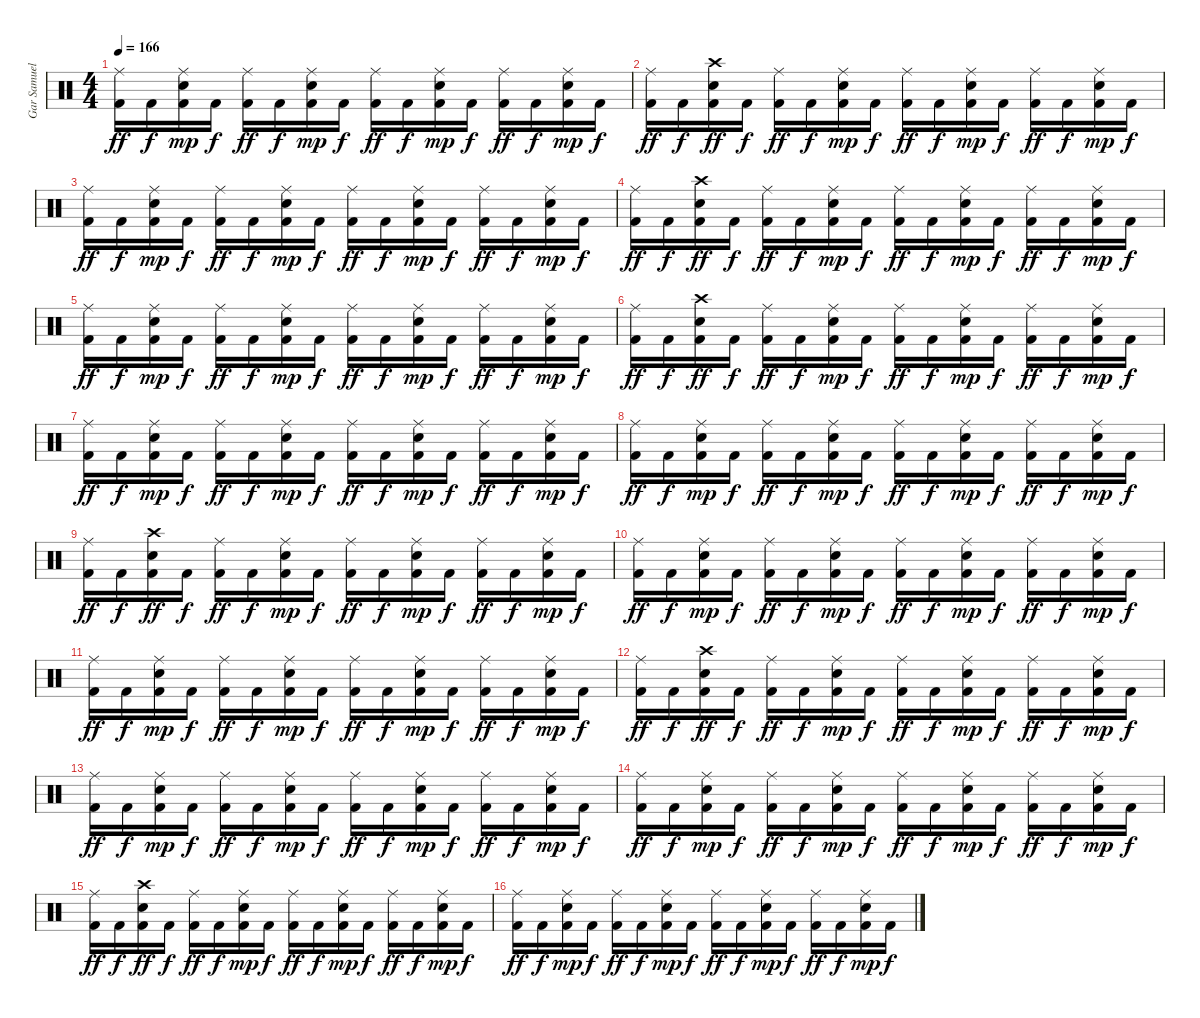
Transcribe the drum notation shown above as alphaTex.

\track ("Gar Samuelson" "Gar Samuel") {instrument percussion}
\staff {score}
\articulation defaults
\ts (4 4)
\tempo 166
\clef neutral
\ks c
("Ride (middle)" "Kick (hit) 2").16{dy ff} "Kick (hit) 2".16{dy f} ("Kick (hit) 2" "Snare (hit) 2" "Ride (middle)").16{dy mp} "Kick (hit) 2".16{dy f} ("Ride (middle)" "Kick (hit) 2").16{dy ff} "Kick (hit) 2".16{dy f} ("Kick (hit) 2" "Snare (hit) 2" "Ride (middle)").16{dy mp} "Kick (hit) 2".16{dy f} ("Ride (middle)" "Kick (hit) 2").16{dy ff} "Kick (hit) 2".16{dy f} ("Kick (hit) 2" "Snare (hit) 2" "Ride (middle)").16{dy mp} "Kick (hit) 2".16{dy f} ("Ride (middle)" "Kick (hit) 2").16{dy ff} "Kick (hit) 2".16{dy f} ("Kick (hit) 2" "Snare (hit) 2" "Ride (middle)").16{dy mp} "Kick (hit) 2".16{dy f} |
("Ride (middle)" "Kick (hit) 2").16{dy ff} "Kick (hit) 2".16{dy f} ("Snare (hit) 2" "Crash high (hit)" "Kick (hit) 2").16{dy ff} "Kick (hit) 2".16{dy f} ("Ride (middle)" "Kick (hit) 2").16{dy ff} "Kick (hit) 2".16{dy f} ("Kick (hit) 2" "Snare (hit) 2" "Ride (middle)").16{dy mp} "Kick (hit) 2".16{dy f} ("Ride (middle)" "Kick (hit) 2").16{dy ff} "Kick (hit) 2".16{dy f} ("Kick (hit) 2" "Snare (hit) 2" "Ride (middle)").16{dy mp} "Kick (hit) 2".16{dy f} ("Ride (middle)" "Kick (hit) 2").16{dy ff} "Kick (hit) 2".16{dy f} ("Kick (hit) 2" "Snare (hit) 2" "Ride (middle)").16{dy mp} "Kick (hit) 2".16{dy f} |
("Ride (middle)" "Kick (hit) 2").16{dy ff} "Kick (hit) 2".16{dy f} ("Kick (hit) 2" "Snare (hit) 2" "Ride (middle)").16{dy mp} "Kick (hit) 2".16{dy f} ("Ride (middle)" "Kick (hit) 2").16{dy ff} "Kick (hit) 2".16{dy f} ("Kick (hit) 2" "Snare (hit) 2" "Ride (middle)").16{dy mp} "Kick (hit) 2".16{dy f} ("Ride (middle)" "Kick (hit) 2").16{dy ff} "Kick (hit) 2".16{dy f} ("Kick (hit) 2" "Snare (hit) 2" "Ride (middle)").16{dy mp} "Kick (hit) 2".16{dy f} ("Ride (middle)" "Kick (hit) 2").16{dy ff} "Kick (hit) 2".16{dy f} ("Kick (hit) 2" "Snare (hit) 2" "Ride (middle)").16{dy mp} "Kick (hit) 2".16{dy f} |
("Ride (middle)" "Kick (hit) 2").16{dy ff} "Kick (hit) 2".16{dy f} ("Snare (hit) 2" "Crash high (hit)" "Kick (hit) 2").16{dy ff} "Kick (hit) 2".16{dy f} ("Ride (middle)" "Kick (hit) 2").16{dy ff} "Kick (hit) 2".16{dy f} ("Kick (hit) 2" "Snare (hit) 2" "Ride (middle)").16{dy mp} "Kick (hit) 2".16{dy f} ("Ride (middle)" "Kick (hit) 2").16{dy ff} "Kick (hit) 2".16{dy f} ("Kick (hit) 2" "Snare (hit) 2" "Ride (middle)").16{dy mp} "Kick (hit) 2".16{dy f} ("Ride (middle)" "Kick (hit) 2").16{dy ff} "Kick (hit) 2".16{dy f} ("Kick (hit) 2" "Snare (hit) 2" "Ride (middle)").16{dy mp} "Kick (hit) 2".16{dy f} |
("Ride (middle)" "Kick (hit) 2").16{dy ff} "Kick (hit) 2".16{dy f} ("Kick (hit) 2" "Snare (hit) 2" "Ride (middle)").16{dy mp} "Kick (hit) 2".16{dy f} ("Ride (middle)" "Kick (hit) 2").16{dy ff} "Kick (hit) 2".16{dy f} ("Kick (hit) 2" "Snare (hit) 2" "Ride (middle)").16{dy mp} "Kick (hit) 2".16{dy f} ("Ride (middle)" "Kick (hit) 2").16{dy ff} "Kick (hit) 2".16{dy f} ("Kick (hit) 2" "Snare (hit) 2" "Ride (middle)").16{dy mp} "Kick (hit) 2".16{dy f} ("Ride (middle)" "Kick (hit) 2").16{dy ff} "Kick (hit) 2".16{dy f} ("Kick (hit) 2" "Snare (hit) 2" "Ride (middle)").16{dy mp} "Kick (hit) 2".16{dy f} |
("Ride (middle)" "Kick (hit) 2").16{dy ff} "Kick (hit) 2".16{dy f} ("Snare (hit) 2" "Crash high (hit)" "Kick (hit) 2").16{dy ff} "Kick (hit) 2".16{dy f} ("Ride (middle)" "Kick (hit) 2").16{dy ff} "Kick (hit) 2".16{dy f} ("Kick (hit) 2" "Snare (hit) 2" "Ride (middle)").16{dy mp} "Kick (hit) 2".16{dy f} ("Ride (middle)" "Kick (hit) 2").16{dy ff} "Kick (hit) 2".16{dy f} ("Kick (hit) 2" "Snare (hit) 2" "Ride (middle)").16{dy mp} "Kick (hit) 2".16{dy f} ("Ride (middle)" "Kick (hit) 2").16{dy ff} "Kick (hit) 2".16{dy f} ("Kick (hit) 2" "Snare (hit) 2" "Ride (middle)").16{dy mp} "Kick (hit) 2".16{dy f} |
("Ride (middle)" "Kick (hit) 2").16{dy ff} "Kick (hit) 2".16{dy f} ("Kick (hit) 2" "Snare (hit) 2" "Ride (middle)").16{dy mp} "Kick (hit) 2".16{dy f} ("Ride (middle)" "Kick (hit) 2").16{dy ff} "Kick (hit) 2".16{dy f} ("Kick (hit) 2" "Snare (hit) 2" "Ride (middle)").16{dy mp} "Kick (hit) 2".16{dy f} ("Ride (middle)" "Kick (hit) 2").16{dy ff} "Kick (hit) 2".16{dy f} ("Kick (hit) 2" "Snare (hit) 2" "Ride (middle)").16{dy mp} "Kick (hit) 2".16{dy f} ("Ride (middle)" "Kick (hit) 2").16{dy ff} "Kick (hit) 2".16{dy f} ("Kick (hit) 2" "Snare (hit) 2" "Ride (middle)").16{dy mp} "Kick (hit) 2".16{dy f} |
("Ride (middle)" "Kick (hit) 2").16{dy ff} "Kick (hit) 2".16{dy f} ("Kick (hit) 2" "Snare (hit) 2" "Ride (middle)").16{dy mp} "Kick (hit) 2".16{dy f} ("Ride (middle)" "Kick (hit) 2").16{dy ff} "Kick (hit) 2".16{dy f} ("Kick (hit) 2" "Snare (hit) 2" "Ride (middle)").16{dy mp} "Kick (hit) 2".16{dy f} ("Ride (middle)" "Kick (hit) 2").16{dy ff} "Kick (hit) 2".16{dy f} ("Kick (hit) 2" "Snare (hit) 2" "Ride (middle)").16{dy mp} "Kick (hit) 2".16{dy f} ("Ride (middle)" "Kick (hit) 2").16{dy ff} "Kick (hit) 2".16{dy f} ("Kick (hit) 2" "Snare (hit) 2" "Ride (middle)").16{dy mp} "Kick (hit) 2".16{dy f} |
("Ride (middle)" "Kick (hit) 2").16{dy ff} "Kick (hit) 2".16{dy f} ("Snare (hit) 2" "Crash high (hit)" "Kick (hit) 2").16{dy ff} "Kick (hit) 2".16{dy f} ("Ride (middle)" "Kick (hit) 2").16{dy ff} "Kick (hit) 2".16{dy f} ("Kick (hit) 2" "Snare (hit) 2" "Ride (middle)").16{dy mp} "Kick (hit) 2".16{dy f} ("Ride (middle)" "Kick (hit) 2").16{dy ff} "Kick (hit) 2".16{dy f} ("Kick (hit) 2" "Snare (hit) 2" "Ride (middle)").16{dy mp} "Kick (hit) 2".16{dy f} ("Ride (middle)" "Kick (hit) 2").16{dy ff} "Kick (hit) 2".16{dy f} ("Kick (hit) 2" "Snare (hit) 2" "Ride (middle)").16{dy mp} "Kick (hit) 2".16{dy f} |
("Ride (middle)" "Kick (hit) 2").16{dy ff} "Kick (hit) 2".16{dy f} ("Kick (hit) 2" "Snare (hit) 2" "Ride (middle)").16{dy mp} "Kick (hit) 2".16{dy f} ("Ride (middle)" "Kick (hit) 2").16{dy ff} "Kick (hit) 2".16{dy f} ("Kick (hit) 2" "Snare (hit) 2" "Ride (middle)").16{dy mp} "Kick (hit) 2".16{dy f} ("Ride (middle)" "Kick (hit) 2").16{dy ff} "Kick (hit) 2".16{dy f} ("Kick (hit) 2" "Snare (hit) 2" "Ride (middle)").16{dy mp} "Kick (hit) 2".16{dy f} ("Ride (middle)" "Kick (hit) 2").16{dy ff} "Kick (hit) 2".16{dy f} ("Kick (hit) 2" "Snare (hit) 2" "Ride (middle)").16{dy mp} "Kick (hit) 2".16{dy f} |
("Ride (middle)" "Kick (hit) 2").16{dy ff} "Kick (hit) 2".16{dy f} ("Kick (hit) 2" "Snare (hit) 2" "Ride (middle)").16{dy mp} "Kick (hit) 2".16{dy f} ("Ride (middle)" "Kick (hit) 2").16{dy ff} "Kick (hit) 2".16{dy f} ("Kick (hit) 2" "Snare (hit) 2" "Ride (middle)").16{dy mp} "Kick (hit) 2".16{dy f} ("Ride (middle)" "Kick (hit) 2").16{dy ff} "Kick (hit) 2".16{dy f} ("Kick (hit) 2" "Snare (hit) 2" "Ride (middle)").16{dy mp} "Kick (hit) 2".16{dy f} ("Ride (middle)" "Kick (hit) 2").16{dy ff} "Kick (hit) 2".16{dy f} ("Kick (hit) 2" "Snare (hit) 2" "Ride (middle)").16{dy mp} "Kick (hit) 2".16{dy f} |
("Ride (middle)" "Kick (hit) 2").16{dy ff} "Kick (hit) 2".16{dy f} ("Snare (hit) 2" "Crash high (hit)" "Kick (hit) 2").16{dy ff} "Kick (hit) 2".16{dy f} ("Ride (middle)" "Kick (hit) 2").16{dy ff} "Kick (hit) 2".16{dy f} ("Kick (hit) 2" "Snare (hit) 2" "Ride (middle)").16{dy mp} "Kick (hit) 2".16{dy f} ("Ride (middle)" "Kick (hit) 2").16{dy ff} "Kick (hit) 2".16{dy f} ("Kick (hit) 2" "Snare (hit) 2" "Ride (middle)").16{dy mp} "Kick (hit) 2".16{dy f} ("Ride (middle)" "Kick (hit) 2").16{dy ff} "Kick (hit) 2".16{dy f} ("Kick (hit) 2" "Snare (hit) 2" "Ride (middle)").16{dy mp} "Kick (hit) 2".16{dy f} |
("Ride (middle)" "Kick (hit) 2").16{dy ff} "Kick (hit) 2".16{dy f} ("Kick (hit) 2" "Snare (hit) 2" "Ride (middle)").16{dy mp} "Kick (hit) 2".16{dy f} ("Ride (middle)" "Kick (hit) 2").16{dy ff} "Kick (hit) 2".16{dy f} ("Kick (hit) 2" "Snare (hit) 2" "Ride (middle)").16{dy mp} "Kick (hit) 2".16{dy f} ("Ride (middle)" "Kick (hit) 2").16{dy ff} "Kick (hit) 2".16{dy f} ("Kick (hit) 2" "Snare (hit) 2" "Ride (middle)").16{dy mp} "Kick (hit) 2".16{dy f} ("Ride (middle)" "Kick (hit) 2").16{dy ff} "Kick (hit) 2".16{dy f} ("Kick (hit) 2" "Snare (hit) 2" "Ride (middle)").16{dy mp} "Kick (hit) 2".16{dy f} |
("Ride (middle)" "Kick (hit) 2").16{dy ff} "Kick (hit) 2".16{dy f} ("Kick (hit) 2" "Snare (hit) 2" "Ride (middle)").16{dy mp} "Kick (hit) 2".16{dy f} ("Ride (middle)" "Kick (hit) 2").16{dy ff} "Kick (hit) 2".16{dy f} ("Kick (hit) 2" "Snare (hit) 2" "Ride (middle)").16{dy mp} "Kick (hit) 2".16{dy f} ("Ride (middle)" "Kick (hit) 2").16{dy ff} "Kick (hit) 2".16{dy f} ("Kick (hit) 2" "Snare (hit) 2" "Ride (middle)").16{dy mp} "Kick (hit) 2".16{dy f} ("Ride (middle)" "Kick (hit) 2").16{dy ff} "Kick (hit) 2".16{dy f} ("Kick (hit) 2" "Snare (hit) 2" "Ride (middle)").16{dy mp} "Kick (hit) 2".16{dy f} |
("Ride (middle)" "Kick (hit) 2").16{dy ff} "Kick (hit) 2".16{dy f} ("Snare (hit) 2" "Crash high (hit)" "Kick (hit) 2").16{dy ff} "Kick (hit) 2".16{dy f} ("Ride (middle)" "Kick (hit) 2").16{dy ff} "Kick (hit) 2".16{dy f} ("Kick (hit) 2" "Snare (hit) 2" "Ride (middle)").16{dy mp} "Kick (hit) 2".16{dy f} ("Ride (middle)" "Kick (hit) 2").16{dy ff} "Kick (hit) 2".16{dy f} ("Kick (hit) 2" "Snare (hit) 2" "Ride (middle)").16{dy mp} "Kick (hit) 2".16{dy f} ("Ride (middle)" "Kick (hit) 2").16{dy ff} "Kick (hit) 2".16{dy f} ("Kick (hit) 2" "Snare (hit) 2" "Ride (middle)").16{dy mp} "Kick (hit) 2".16{dy f} |
("Ride (middle)" "Kick (hit) 2").16{dy ff} "Kick (hit) 2".16{dy f} ("Kick (hit) 2" "Snare (hit) 2" "Ride (middle)").16{dy mp} "Kick (hit) 2".16{dy f} ("Ride (middle)" "Kick (hit) 2").16{dy ff} "Kick (hit) 2".16{dy f} ("Kick (hit) 2" "Snare (hit) 2" "Ride (middle)").16{dy mp} "Kick (hit) 2".16{dy f} ("Ride (middle)" "Kick (hit) 2").16{dy ff} "Kick (hit) 2".16{dy f} ("Kick (hit) 2" "Snare (hit) 2" "Ride (middle)").16{dy mp} "Kick (hit) 2".16{dy f} ("Ride (middle)" "Kick (hit) 2").16{dy ff} "Kick (hit) 2".16{dy f} ("Kick (hit) 2" "Snare (hit) 2" "Ride (middle)").16{dy mp} "Kick (hit) 2".16{dy f}
